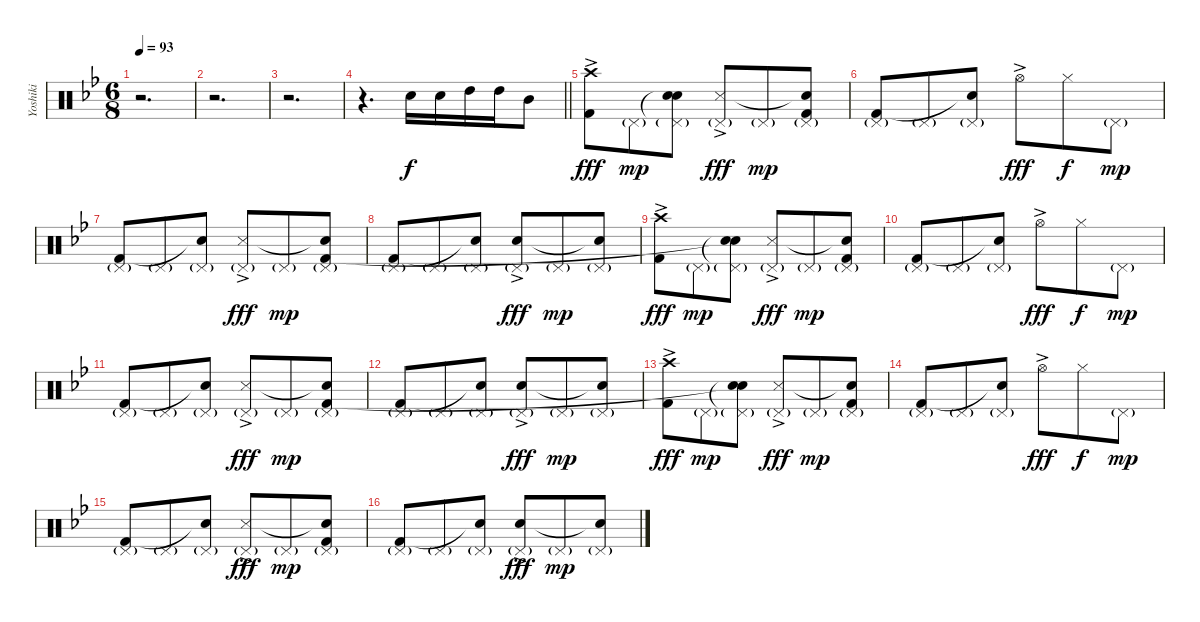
\track ("Yoshiki" "Yoshiki") {instrument percussion}
\staff {score}
\articulation defaults
\ts (6 8)
\tempo 93
\clef neutral
\ks bb
r.2{d dy f} |
r.2{d} |
r.2{d} |
\barLineRight lightlight
r.4{d} "Snare (hit) 2".16 "Snare (hit) 2".16 "High Tom (hit)".16 "High Tom (hit)".16 "Mid Tom (hit)".8 |
("Crash high (hit)"{ac} "Kick (hit) 2"{ac}).8{dy fff} "Pedal Hi-Hat (hit)"{g}.8{dy mp} ("Snare (hit)"{t} "Pedal Hi-Hat (hit)"{g} "Snare (hit)").8 ("Pedal Hi-Hat (hit)"{g} "Snare (side stick) 3"{ac}).8{dy fff} "Pedal Hi-Hat (hit)"{g}.8{dy mp} ("Pedal Hi-Hat (hit)"{g} "Snare (hit)"{t} "Kick (hit) 2").8 |
("Pedal Hi-Hat (hit)"{g} "Kick (hit) 2").8 "Pedal Hi-Hat (hit)"{g}.8 ("Pedal Hi-Hat (hit)"{g} "Snare (hit)"{t}).8 "Hi-Hat (open)"{ac}.8{dy fff} "Hi-Hat (closed)".8{dy f} "Pedal Hi-Hat (hit)"{g}.8{dy mp} |
("Pedal Hi-Hat (hit)"{g} "Kick (hit) 2").8 "Pedal Hi-Hat (hit)"{g}.8 ("Pedal Hi-Hat (hit)"{g} "Snare (hit)"{t}).8 ("Pedal Hi-Hat (hit)"{g} "Snare (side stick) 3"{ac}).8{dy fff} "Pedal Hi-Hat (hit)"{g}.8{dy mp} ("Pedal Hi-Hat (hit)"{g} "Snare (hit)"{t} "Kick (hit) 2").8 |
("Pedal Hi-Hat (hit)"{g} "Kick (hit) 2").8 "Pedal Hi-Hat (hit)"{g}.8 ("Pedal Hi-Hat (hit)"{g} "Snare (hit)"{t}).8 ("Pedal Hi-Hat (hit)"{g} "Snare (hit) 2"{ac}).8{dy fff} "Pedal Hi-Hat (hit)"{g}.8{dy mp} ("Pedal Hi-Hat (hit)"{g} "Snare (hit)"{t}).8 |
("Crash high (hit)"{ac} "Kick (hit) 2"{ac}).8{dy fff} "Pedal Hi-Hat (hit)"{g}.8{dy mp} ("Snare (hit)"{t} "Pedal Hi-Hat (hit)"{g} "Snare (hit)"{t}).8 ("Pedal Hi-Hat (hit)"{g} "Snare (side stick) 3"{ac}).8{dy fff} "Pedal Hi-Hat (hit)"{g}.8{dy mp} ("Pedal Hi-Hat (hit)"{g} "Snare (hit)"{t} "Kick (hit) 2").8 |
("Pedal Hi-Hat (hit)"{g} "Kick (hit) 2").8 "Pedal Hi-Hat (hit)"{g}.8 ("Pedal Hi-Hat (hit)"{g} "Snare (hit)"{t}).8 "Hi-Hat (open)"{ac}.8{dy fff} "Hi-Hat (closed)".8{dy f} "Pedal Hi-Hat (hit)"{g}.8{dy mp} |
("Pedal Hi-Hat (hit)"{g} "Kick (hit) 2").8 "Pedal Hi-Hat (hit)"{g}.8 ("Pedal Hi-Hat (hit)"{g} "Snare (hit)"{t}).8 ("Pedal Hi-Hat (hit)"{g} "Snare (side stick) 3"{ac}).8{dy fff} "Pedal Hi-Hat (hit)"{g}.8{dy mp} ("Pedal Hi-Hat (hit)"{g} "Snare (hit)"{t} "Kick (hit) 2").8 |
("Pedal Hi-Hat (hit)"{g} "Kick (hit) 2").8 "Pedal Hi-Hat (hit)"{g}.8 ("Pedal Hi-Hat (hit)"{g} "Snare (hit)"{t}).8 ("Pedal Hi-Hat (hit)"{g} "Snare (hit) 2"{ac}).8{dy fff} "Pedal Hi-Hat (hit)"{g}.8{dy mp} ("Pedal Hi-Hat (hit)"{g} "Snare (hit)"{t}).8 |
("Crash high (hit)"{ac} "Kick (hit) 2"{ac}).8{dy fff} "Pedal Hi-Hat (hit)"{g}.8{dy mp} ("Snare (hit)"{t} "Pedal Hi-Hat (hit)"{g} "Snare (hit)"{t}).8 ("Pedal Hi-Hat (hit)"{g} "Snare (side stick) 3"{ac}).8{dy fff} "Pedal Hi-Hat (hit)"{g}.8{dy mp} ("Pedal Hi-Hat (hit)"{g} "Snare (hit)"{t} "Kick (hit) 2").8 |
("Pedal Hi-Hat (hit)"{g} "Kick (hit) 2").8 "Pedal Hi-Hat (hit)"{g}.8 ("Pedal Hi-Hat (hit)"{g} "Snare (hit)"{t}).8 "Hi-Hat (open)"{ac}.8{dy fff} "Hi-Hat (closed)".8{dy f} "Pedal Hi-Hat (hit)"{g}.8{dy mp} |
("Pedal Hi-Hat (hit)"{g} "Kick (hit) 2").8 "Pedal Hi-Hat (hit)"{g}.8 ("Pedal Hi-Hat (hit)"{g} "Snare (hit)"{t}).8 ("Pedal Hi-Hat (hit)"{g} "Snare (side stick) 3"{ac}).8{dy fff} "Pedal Hi-Hat (hit)"{g}.8{dy mp} ("Pedal Hi-Hat (hit)"{g} "Snare (hit)"{t} "Kick (hit) 2").8 |
("Pedal Hi-Hat (hit)"{g} "Kick (hit) 2").8 "Pedal Hi-Hat (hit)"{g}.8 ("Pedal Hi-Hat (hit)"{g} "Snare (hit)"{t}).8 ("Pedal Hi-Hat (hit)"{g} "Snare (hit) 2"{ac}).8{dy fff} "Pedal Hi-Hat (hit)"{g}.8{dy mp} ("Pedal Hi-Hat (hit)"{g} "Snare (hit)"{t}).8
